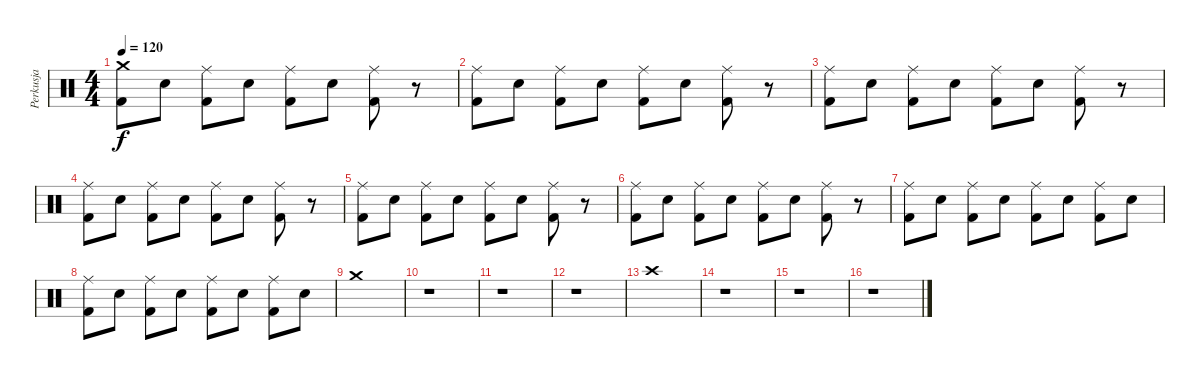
\track ("Perkusja" "Perkusja") {instrument percussion}
\staff {score}
\articulation defaults
\ts (4 4)
\tempo 120
\clef neutral
\ks c
("Kick (hit) 2" "Crash medium (hit)").8{dy f} "Electric Snare (hit)".8 ("Kick (hit) 2" "Ride (middle)").8 "Electric Snare (hit)".8 ("Kick (hit) 2" "Ride (middle)").8 "Electric Snare (hit)".8 ("Kick (hit) 2" "Ride (middle)").8 r.8 |
("Kick (hit) 2" "Ride (middle)").8 "Electric Snare (hit)".8 ("Kick (hit) 2" "Ride (middle)").8 "Electric Snare (hit)".8 ("Kick (hit) 2" "Ride (middle)").8 "Electric Snare (hit)".8 ("Kick (hit) 2" "Ride (middle)").8 r.8 |
("Kick (hit) 2" "Ride (middle)").8 "Electric Snare (hit)".8 ("Kick (hit) 2" "Ride (middle)").8 "Electric Snare (hit)".8 ("Kick (hit) 2" "Ride (middle)").8 "Electric Snare (hit)".8 ("Kick (hit) 2" "Ride (middle)").8 r.8 |
("Kick (hit) 2" "Ride (middle)").8 "Electric Snare (hit)".8 ("Kick (hit) 2" "Ride (middle)").8 "Electric Snare (hit)".8 ("Kick (hit) 2" "Ride (middle)").8 "Electric Snare (hit)".8 ("Kick (hit) 2" "Ride (middle)").8 r.8 |
("Kick (hit) 2" "Ride (middle)").8 "Electric Snare (hit)".8 ("Kick (hit) 2" "Ride (middle)").8 "Electric Snare (hit)".8 ("Kick (hit) 2" "Ride (middle)").8 "Electric Snare (hit)".8 ("Kick (hit) 2" "Ride (middle)").8 r.8 |
("Kick (hit) 2" "Ride (middle)").8 "Electric Snare (hit)".8 ("Kick (hit) 2" "Ride (middle)").8 "Electric Snare (hit)".8 ("Kick (hit) 2" "Ride (middle)").8 "Electric Snare (hit)".8 ("Kick (hit) 2" "Ride (middle)").8 r.8 |
("Kick (hit) 2" "Ride (middle)").8 "Electric Snare (hit)".8 ("Kick (hit) 2" "Ride (middle)").8 "Electric Snare (hit)".8 ("Kick (hit) 2" "Ride (middle)").8 "Electric Snare (hit)".8 ("Kick (hit) 2" "Ride (middle)").8 "Electric Snare (hit)".8 |
("Kick (hit) 2" "Ride (middle)").8 "Electric Snare (hit)".8 ("Kick (hit) 2" "Ride (middle)").8 "Electric Snare (hit)".8 ("Kick (hit) 2" "Ride (middle)").8 "Electric Snare (hit)".8 ("Kick (hit) 2" "Ride (middle)").8 "Electric Snare (hit)".8 |
"Crash medium (hit)".1 |
r.1 |
r.1 |
r.1 |
"Crash high (hit)".1 |
r.1 |
r.1 |
r.1
